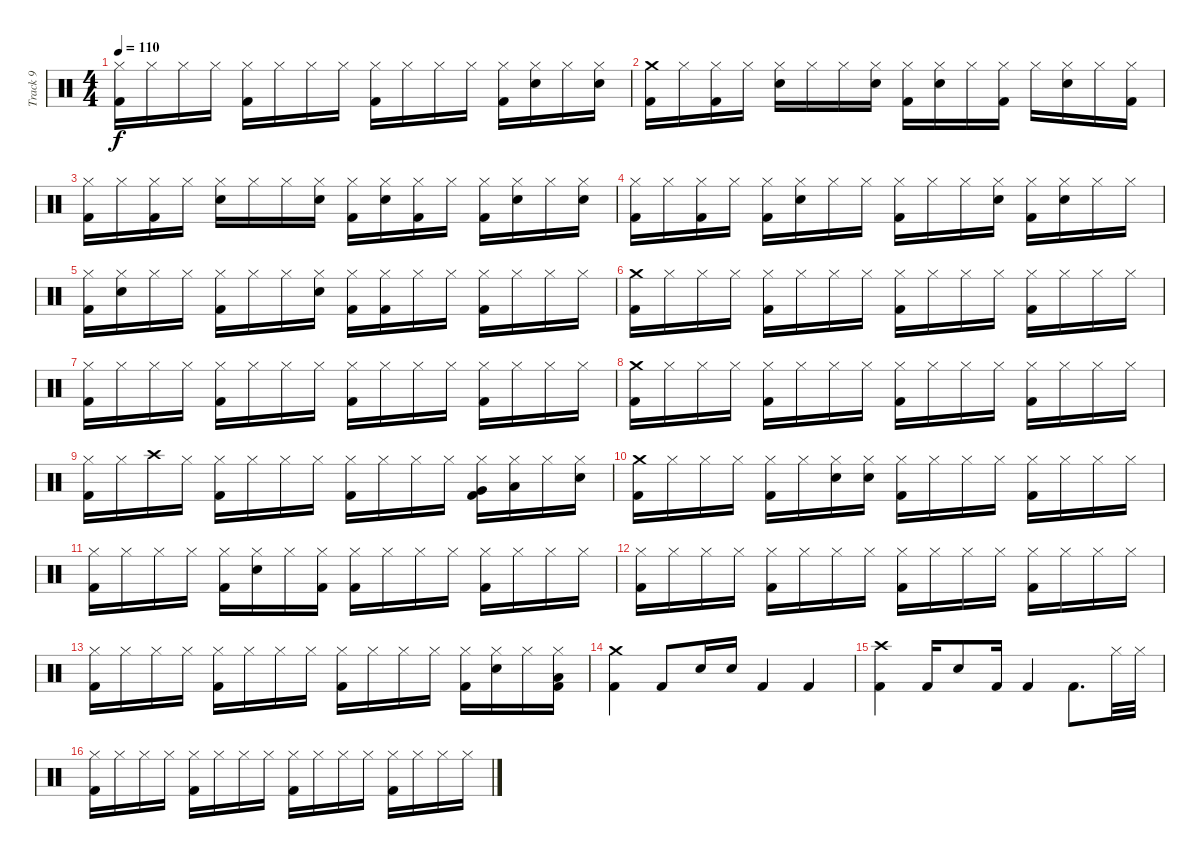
\track ("Track 9" "Track 9") {instrument percussion}
\staff {score}
\articulation defaults
\ts (4 4)
\tempo 110
\clef neutral
\ks c
("Hi-Hat (closed)" "Kick (hit) 2").16{dy f} "Hi-Hat (closed)".16 "Hi-Hat (closed)".16 "Hi-Hat (closed)".16 ("Hi-Hat (closed)" "Kick (hit) 2").16 "Hi-Hat (closed)".16 "Hi-Hat (closed)".16 "Hi-Hat (closed)".16 ("Hi-Hat (closed)" "Kick (hit) 2").16 "Hi-Hat (closed)".16 "Hi-Hat (closed)".16 "Hi-Hat (closed)".16 ("Hi-Hat (closed)" "Kick (hit) 2").16 ("Hi-Hat (closed)" "Snare (hit) 2").16 "Hi-Hat (closed)".16 ("Hi-Hat (closed)" "Snare (hit) 2").16 |
("Crash medium (hit)" "Kick (hit) 2").16 "Hi-Hat (closed)".16 ("Hi-Hat (closed)" "Kick (hit) 2").16 "Hi-Hat (closed)".16 ("Hi-Hat (closed)" "Snare (hit) 2").16 "Hi-Hat (closed)".16 "Hi-Hat (closed)".16 ("Hi-Hat (closed)" "Snare (hit) 2").16 ("Hi-Hat (closed)" "Kick (hit) 2").16 ("Hi-Hat (closed)" "Snare (hit) 2").16 "Hi-Hat (closed)".16 ("Hi-Hat (closed)" "Kick (hit) 2").16 "Hi-Hat (closed)".16 ("Hi-Hat (closed)" "Snare (hit) 2").16 "Hi-Hat (closed)".16 ("Hi-Hat (closed)" "Kick (hit) 2").16 |
("Hi-Hat (closed)" "Kick (hit) 2").16 "Hi-Hat (closed)".16 ("Hi-Hat (closed)" "Kick (hit) 2").16 "Hi-Hat (closed)".16 ("Hi-Hat (closed)" "Snare (hit) 2").16 "Hi-Hat (closed)".16 "Hi-Hat (closed)".16 ("Hi-Hat (closed)" "Snare (hit) 2").16 ("Hi-Hat (closed)" "Kick (hit) 2").16 ("Hi-Hat (closed)" "Snare (hit) 2").16 ("Hi-Hat (closed)" "Kick (hit) 2").16 "Hi-Hat (closed)".16 ("Hi-Hat (closed)" "Kick (hit) 2").16 ("Hi-Hat (closed)" "Snare (hit) 2").16 "Hi-Hat (closed)".16 ("Hi-Hat (closed)" "Snare (hit) 2").16 |
("Hi-Hat (closed)" "Kick (hit) 2").16 "Hi-Hat (closed)".16 ("Hi-Hat (closed)" "Kick (hit) 2").16 "Hi-Hat (closed)".16 ("Hi-Hat (closed)" "Kick (hit) 2").16 ("Hi-Hat (closed)" "Snare (hit) 2").16 "Hi-Hat (closed)".16 "Hi-Hat (closed)".16 ("Hi-Hat (closed)" "Kick (hit) 2").16 "Hi-Hat (closed)".16 "Hi-Hat (closed)".16 ("Hi-Hat (closed)" "Snare (hit) 2").16 ("Hi-Hat (closed)" "Kick (hit) 2").16 ("Hi-Hat (closed)" "Snare (hit) 2").16 "Hi-Hat (closed)".16 "Hi-Hat (closed)".16 |
("Hi-Hat (closed)" "Kick (hit) 2").16 ("Hi-Hat (closed)" "Snare (hit) 2").16 "Hi-Hat (closed)".16 "Hi-Hat (closed)".16 ("Hi-Hat (closed)" "Kick (hit) 2").16 "Hi-Hat (closed)".16 "Hi-Hat (closed)".16 ("Hi-Hat (closed)" "Snare (hit) 2").16 ("Hi-Hat (closed)" "Kick (hit) 2").16 ("Hi-Hat (closed)" "Kick (hit) 2").16 "Hi-Hat (closed)".16 "Hi-Hat (closed)".16 ("Hi-Hat (closed)" "Kick (hit) 2").16 "Hi-Hat (closed)".16 "Hi-Hat (closed)".16 "Hi-Hat (closed)".16 |
("Crash medium (hit)" "Kick (hit) 2").16 "Hi-Hat (closed)".16 "Hi-Hat (closed)".16 "Hi-Hat (closed)".16 ("Hi-Hat (closed)" "Kick (hit) 2").16 "Hi-Hat (closed)".16 "Hi-Hat (closed)".16 "Hi-Hat (closed)".16 ("Hi-Hat (closed)" "Kick (hit) 2").16 "Hi-Hat (closed)".16 "Hi-Hat (closed)".16 "Hi-Hat (closed)".16 ("Hi-Hat (closed)" "Kick (hit) 2").16 "Hi-Hat (closed)".16 "Hi-Hat (closed)".16 "Hi-Hat (closed)".16 |
("Hi-Hat (closed)" "Kick (hit) 2").16 "Hi-Hat (closed)".16 "Hi-Hat (closed)".16 "Hi-Hat (closed)".16 ("Hi-Hat (closed)" "Kick (hit) 2").16 "Hi-Hat (closed)".16 "Hi-Hat (closed)".16 "Hi-Hat (closed)".16 ("Hi-Hat (closed)" "Kick (hit) 2").16 "Hi-Hat (closed)".16 "Hi-Hat (closed)".16 "Hi-Hat (closed)".16 ("Hi-Hat (closed)" "Kick (hit) 2").16 "Hi-Hat (closed)".16 "Hi-Hat (closed)".16 "Hi-Hat (closed)".16 |
("Crash medium (hit)" "Kick (hit) 2").16 "Hi-Hat (closed)".16 "Hi-Hat (closed)".16 "Hi-Hat (closed)".16 ("Hi-Hat (closed)" "Kick (hit) 2").16 "Hi-Hat (closed)".16 "Hi-Hat (closed)".16 "Hi-Hat (closed)".16 ("Hi-Hat (closed)" "Kick (hit) 2").16 "Hi-Hat (closed)".16 "Hi-Hat (closed)".16 "Hi-Hat (closed)".16 ("Hi-Hat (closed)" "Kick (hit) 2").16 "Hi-Hat (closed)".16 "Hi-Hat (closed)".16 "Hi-Hat (closed)".16 |
("Hi-Hat (closed)" "Kick (hit) 2").16 "Hi-Hat (closed)".16 "Crash high (hit)".16 "Hi-Hat (closed)".16 ("Hi-Hat (closed)" "Kick (hit) 2").16 "Hi-Hat (closed)".16 "Hi-Hat (closed)".16 "Hi-Hat (closed)".16 ("Hi-Hat (closed)" "Kick (hit) 2").16 "Hi-Hat (closed)".16 "Hi-Hat (closed)".16 "Hi-Hat (closed)".16 ("Hi-Hat (closed)" "Very Low Tom (hit)" "Kick (hit) 2").16 ("Hi-Hat (closed)" "Low Floor Tom (hit)").16 "Hi-Hat (closed)".16 ("Hi-Hat (closed)" "Snare (hit) 2").16 |
("Crash medium (hit)" "Kick (hit) 2").16 "Hi-Hat (closed)".16 "Hi-Hat (closed)".16 "Hi-Hat (closed)".16 ("Hi-Hat (closed)" "Kick (hit) 2").16 "Hi-Hat (closed)".16 ("Hi-Hat (closed)" "Snare (hit) 2").16 ("Hi-Hat (closed)" "Snare (hit) 2").16 ("Hi-Hat (closed)" "Kick (hit) 2").16 "Hi-Hat (closed)".16 "Hi-Hat (closed)".16 "Hi-Hat (closed)".16 ("Hi-Hat (closed)" "Kick (hit) 2").16 "Hi-Hat (closed)".16 "Hi-Hat (closed)".16 "Hi-Hat (closed)".16 |
("Hi-Hat (closed)" "Kick (hit) 2").16 "Hi-Hat (closed)".16 "Hi-Hat (closed)".16 "Hi-Hat (closed)".16 ("Hi-Hat (closed)" "Kick (hit) 2").16 ("Hi-Hat (closed)" "Snare (hit) 2").16 "Hi-Hat (closed)".16 ("Hi-Hat (closed)" "Kick (hit) 2").16 ("Hi-Hat (closed)" "Kick (hit) 2").16 "Hi-Hat (closed)".16 "Hi-Hat (closed)".16 "Hi-Hat (closed)".16 ("Hi-Hat (closed)" "Kick (hit) 2").16 "Hi-Hat (closed)".16 "Hi-Hat (closed)".16 "Hi-Hat (closed)".16 |
("Hi-Hat (closed)" "Kick (hit) 2").16 "Hi-Hat (closed)".16 "Hi-Hat (closed)".16 "Hi-Hat (closed)".16 ("Hi-Hat (closed)" "Kick (hit) 2").16 "Hi-Hat (closed)".16 "Hi-Hat (closed)".16 "Hi-Hat (closed)".16 ("Hi-Hat (closed)" "Kick (hit) 2").16 "Hi-Hat (closed)".16 "Hi-Hat (closed)".16 "Hi-Hat (closed)".16 ("Hi-Hat (closed)" "Kick (hit) 2").16 "Hi-Hat (closed)".16 "Hi-Hat (closed)".16 "Hi-Hat (closed)".16 |
("Hi-Hat (closed)" "Kick (hit) 2").16 "Hi-Hat (closed)".16 "Hi-Hat (closed)".16 "Hi-Hat (closed)".16 ("Hi-Hat (closed)" "Kick (hit) 2").16 "Hi-Hat (closed)".16 "Hi-Hat (closed)".16 "Hi-Hat (closed)".16 ("Hi-Hat (closed)" "Kick (hit) 2").16 "Hi-Hat (closed)".16 "Hi-Hat (closed)".16 "Hi-Hat (closed)".16 ("Hi-Hat (closed)" "Kick (hit) 2").16 ("Hi-Hat (closed)" "Snare (hit) 2").16 "Hi-Hat (closed)".16 ("Hi-Hat (closed)" "Low Floor Tom (hit)" "Kick (hit) 2").16 |
("Crash medium (hit)" "Kick (hit) 2").4 "Kick (hit) 2".8 "Snare (hit) 2".16 "Snare (hit) 2".16 "Kick (hit) 2".4 "Kick (hit) 2".4 |
("Crash high (hit)" "Kick (hit) 2").4 "Kick (hit) 2".16 "Snare (hit) 2".8 "Kick (hit) 2".16 "Kick (hit) 2".4 "Kick (hit) 2".8{d} "Hi-Hat (closed)".32 "Hi-Hat (closed)".32 |
("Hi-Hat (closed)" "Kick (hit) 2").16 "Hi-Hat (closed)".16 "Hi-Hat (closed)".16 "Hi-Hat (closed)".16 ("Hi-Hat (closed)" "Kick (hit) 2").16 "Hi-Hat (closed)".16 "Hi-Hat (closed)".16 "Hi-Hat (closed)".16 ("Hi-Hat (closed)" "Kick (hit) 2").16 "Hi-Hat (closed)".16 "Hi-Hat (closed)".16 "Hi-Hat (closed)".16 ("Hi-Hat (closed)" "Kick (hit) 2").16 "Hi-Hat (closed)".16 "Hi-Hat (closed)".16 "Hi-Hat (closed)".16
